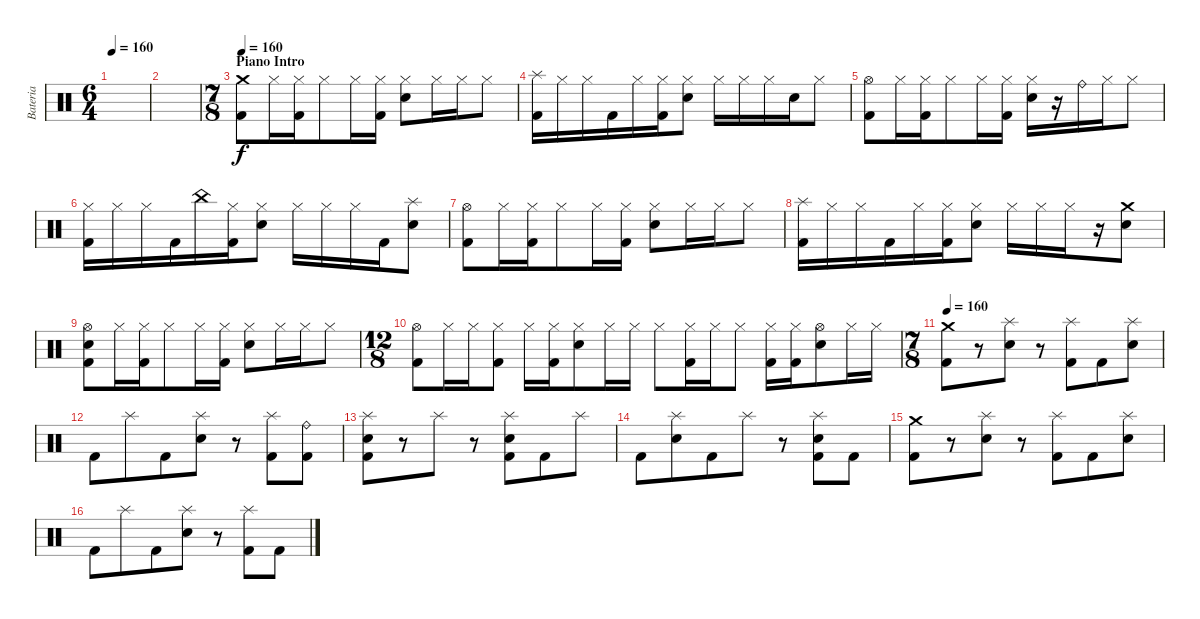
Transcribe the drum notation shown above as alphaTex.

\track ("Bateria" "Bateria") {instrument percussion}
\staff {score}
\articulation defaults
\ts (6 4)
\tempo 160
\tempo 120
\tempo 160
\clef neutral
\ks c
|
|
\ts (7 8)
\section ("" "Piano Intro ")
\tempo 160
("Crash medium (hit)" "Kick (hit) 2").8 "Hi-Hat (closed)".16 ("Hi-Hat (closed)" "Kick (hit) 2").16 "Hi-Hat (closed)".8 "Hi-Hat (closed)".16 ("Hi-Hat (closed)" "Kick (hit) 2").16 ("Hi-Hat (closed)" "Electric Snare (hit)").8 "Hi-Hat (closed)".16 "Hi-Hat (closed)".16 "Hi-Hat (closed)".8 |
("Splash (hit)" "Kick (hit) 2").16 "Hi-Hat (closed)".16 "Hi-Hat (closed)".16 "Kick (hit) 2".16 "Hi-Hat (closed)".16 ("Hi-Hat (closed)" "Kick (hit) 2").16 ("Hi-Hat (closed)" "Electric Snare (hit)").8 "Hi-Hat (closed)".16 "Hi-Hat (closed)".16 "Hi-Hat (closed)".16 "Electric Snare (hit)".16 "Hi-Hat (closed)".8 |
("Hi-Hat (open)" "Kick (hit) 2").8 "Hi-Hat (closed)".16 ("Hi-Hat (closed)" "Kick (hit) 2").16 "Hi-Hat (closed)".8 "Hi-Hat (closed)".16 ("Hi-Hat (closed)" "Kick (hit) 2").16 ("Hi-Hat (closed)" "Electric Snare (hit)").16 r.16 "Ride (bell)".16 "Hi-Hat (closed)".16 "Hi-Hat (closed)".8 |
("Hi-Hat (closed)" "Kick (hit) 2").16 "Hi-Hat (closed)".16 "Hi-Hat (closed)".16 "Kick (hit) 2".16 "China (hit)".16 ("Hi-Hat (closed)" "Kick (hit) 2").16 ("Hi-Hat (closed)" "Electric Snare (hit)").8 "Hi-Hat (closed)".16 "Hi-Hat (closed)".16 "Hi-Hat (closed)".16 "Kick (hit) 2".16 ("Splash (hit)" "Electric Snare (hit)").8 |
("Hi-Hat (open)" "Kick (hit) 2").8 "Hi-Hat (closed)".16 ("Hi-Hat (closed)" "Kick (hit) 2").16 "Hi-Hat (closed)".8 "Hi-Hat (closed)".16 ("Hi-Hat (closed)" "Kick (hit) 2").16 ("Hi-Hat (closed)" "Electric Snare (hit)").8 "Hi-Hat (closed)".16 "Hi-Hat (closed)".16 "Hi-Hat (closed)".8 |
("Splash (hit)" "Kick (hit) 2").16 "Hi-Hat (closed)".16 "Hi-Hat (closed)".16 "Kick (hit) 2".16 "Hi-Hat (closed)".16 ("Hi-Hat (closed)" "Kick (hit) 2").16 ("Hi-Hat (closed)" "Electric Snare (hit)").8 "Hi-Hat (closed)".16 "Hi-Hat (closed)".16 "Hi-Hat (closed)".16 r.16 ("Crash medium (hit)" "Electric Snare (hit)").8 |
("Hi-Hat (open)" "Electric Snare (hit)" "Kick (hit) 2").8 "Hi-Hat (closed)".16 ("Hi-Hat (closed)" "Kick (hit) 2").16 "Hi-Hat (closed)".8 "Hi-Hat (closed)".16 ("Hi-Hat (closed)" "Kick (hit) 2").16 ("Hi-Hat (closed)" "Electric Snare (hit)").8 "Hi-Hat (closed)".16 "Hi-Hat (closed)".16 "Hi-Hat (closed)".8 |
\ts (12 8)
("Hi-Hat (open)" "Kick (hit) 2").8 "Hi-Hat (closed)".16 "Hi-Hat (closed)".16 ("Hi-Hat (closed)" "Kick (hit) 2").8 "Hi-Hat (closed)".16 ("Hi-Hat (closed)" "Kick (hit) 2").16 ("Hi-Hat (closed)" "Electric Snare (hit)").8 "Hi-Hat (closed)".16 "Hi-Hat (closed)".16 "Hi-Hat (closed)".8 ("Hi-Hat (closed)" "Kick (hit) 2").16 "Hi-Hat (closed)".16 "Hi-Hat (closed)".8 ("Hi-Hat (closed)" "Kick (hit) 2").16 ("Hi-Hat (closed)" "Kick (hit) 2").16 ("Hi-Hat (open)" "Electric Snare (hit)").8 "Hi-Hat (closed)".16 "Hi-Hat (closed)".16 |
\ts (7 8)
\tempo 160
("Crash medium (hit)" "Kick (hit) 2").8 r.8 ("Splash (hit)" "Electric Snare (hit)").8 r.8 ("Splash (hit)" "Kick (hit) 2").8 "Kick (hit) 2".8 ("Splash (hit)" "Electric Snare (hit)").8 |
"Kick (hit) 2".8 "Splash (hit)".8 "Kick (hit) 2".8 ("Splash (hit)" "Electric Snare (hit)").8 r.8 ("Splash (hit)" "Kick (hit) 2").8 ("Ride (bell)" "Kick (hit) 2").8 |
("Splash (hit)" "Electric Snare (hit)" "Kick (hit) 2").8 r.8 "Splash (hit)".8 r.8 ("Splash (hit)" "Electric Snare (hit)" "Kick (hit) 2").8 "Kick (hit) 2".8 "Splash (hit)".8 |
"Kick (hit) 2".8 ("Splash (hit)" "Electric Snare (hit)").8 "Kick (hit) 2".8 "Splash (hit)".8 r.8 ("Splash (hit)" "Electric Snare (hit)" "Kick (hit) 2").8 "Kick (hit) 2".8 |
("Crash medium (hit)" "Kick (hit) 2").8 r.8 ("Splash (hit)" "Electric Snare (hit)").8 r.8 ("Splash (hit)" "Kick (hit) 2").8 "Kick (hit) 2".8 ("Splash (hit)" "Electric Snare (hit)").8 |
"Kick (hit) 2".8 "Splash (hit)".8 "Kick (hit) 2".8 ("Splash (hit)" "Electric Snare (hit)").8 r.8 ("Splash (hit)" "Kick (hit) 2").8 "Kick (hit) 2".8
